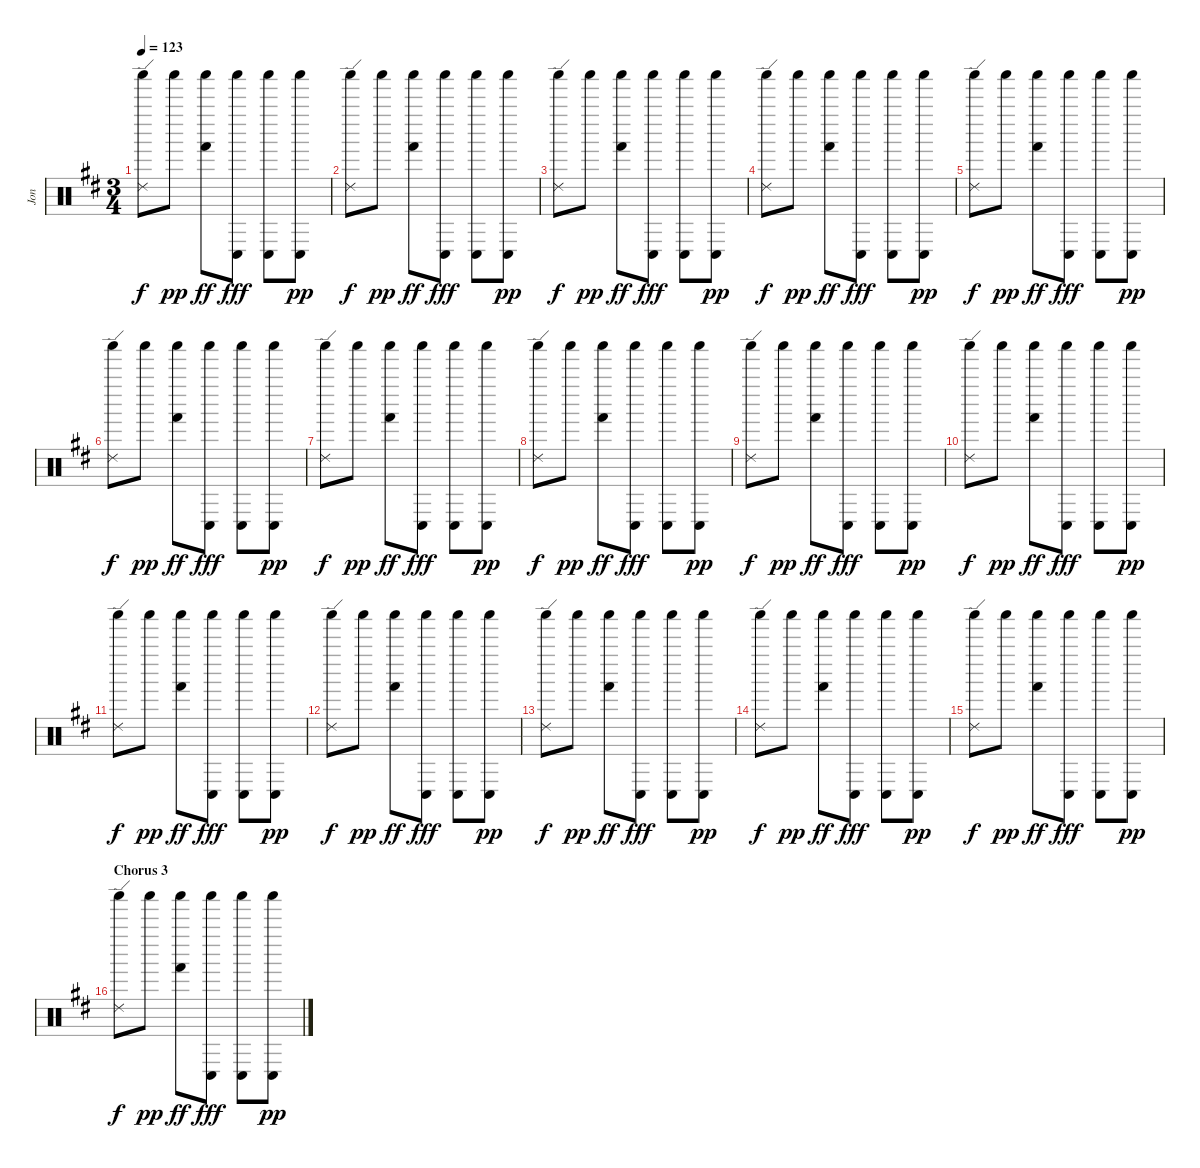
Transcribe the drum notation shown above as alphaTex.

\track ("Jon" "Jon") {instrument percussion}
\staff {score}
\articulation defaults
\ts (3 4)
\tempo 123
\clef neutral
\ks d
("Shaker (hit)" "Ride (edge) 2").8{dy f} "Shaker (hit)".8{dy pp} ("Shaker (hit)" "Hand (hit)").8{dy ff} ("Shaker (hit)" "Conga low (hit)").8{dy fff} ("Shaker (hit)" "Conga low (hit)").8 ("Shaker (hit)" "Conga low (hit)").8{dy pp} |
("Shaker (hit)" "Ride (edge) 2").8{dy f} "Shaker (hit)".8{dy pp} ("Shaker (hit)" "Hand (hit)").8{dy ff} ("Shaker (hit)" "Conga low (hit)").8{dy fff} ("Shaker (hit)" "Conga low (hit)").8 ("Shaker (hit)" "Conga low (hit)").8{dy pp} |
("Shaker (hit)" "Ride (edge) 2").8{dy f} "Shaker (hit)".8{dy pp} ("Shaker (hit)" "Hand (hit)").8{dy ff} ("Shaker (hit)" "Conga low (hit)").8{dy fff} ("Shaker (hit)" "Conga low (hit)").8 ("Shaker (hit)" "Conga low (hit)").8{dy pp} |
("Shaker (hit)" "Ride (edge) 2").8{dy f} "Shaker (hit)".8{dy pp} ("Shaker (hit)" "Hand (hit)").8{dy ff} ("Shaker (hit)" "Conga low (hit)").8{dy fff} ("Shaker (hit)" "Conga low (hit)").8 ("Shaker (hit)" "Conga low (hit)").8{dy pp} |
("Shaker (hit)" "Ride (edge) 2").8{dy f} "Shaker (hit)".8{dy pp} ("Shaker (hit)" "Hand (hit)").8{dy ff} ("Shaker (hit)" "Conga low (hit)").8{dy fff} ("Shaker (hit)" "Conga low (hit)").8 ("Shaker (hit)" "Conga low (hit)").8{dy pp} |
("Shaker (hit)" "Ride (edge) 2").8{dy f} "Shaker (hit)".8{dy pp} ("Shaker (hit)" "Hand (hit)").8{dy ff} ("Shaker (hit)" "Conga low (hit)").8{dy fff} ("Shaker (hit)" "Conga low (hit)").8 ("Shaker (hit)" "Conga low (hit)").8{dy pp} |
("Shaker (hit)" "Ride (edge) 2").8{dy f} "Shaker (hit)".8{dy pp} ("Shaker (hit)" "Hand (hit)").8{dy ff} ("Shaker (hit)" "Conga low (hit)").8{dy fff} ("Shaker (hit)" "Conga low (hit)").8 ("Shaker (hit)" "Conga low (hit)").8{dy pp} |
\section ("" "")
("Shaker (hit)" "Ride (edge) 2").8{dy f} "Shaker (hit)".8{dy pp} ("Shaker (hit)" "Hand (hit)").8{dy ff} ("Shaker (hit)" "Conga low (hit)").8{dy fff} ("Shaker (hit)" "Conga low (hit)").8 ("Shaker (hit)" "Conga low (hit)").8{dy pp} |
("Shaker (hit)" "Ride (edge) 2").8{dy f} "Shaker (hit)".8{dy pp} ("Shaker (hit)" "Hand (hit)").8{dy ff} ("Shaker (hit)" "Conga low (hit)").8{dy fff} ("Shaker (hit)" "Conga low (hit)").8 ("Shaker (hit)" "Conga low (hit)").8{dy pp} |
("Shaker (hit)" "Ride (edge) 2").8{dy f} "Shaker (hit)".8{dy pp} ("Shaker (hit)" "Hand (hit)").8{dy ff} ("Shaker (hit)" "Conga low (hit)").8{dy fff} ("Shaker (hit)" "Conga low (hit)").8 ("Shaker (hit)" "Conga low (hit)").8{dy pp} |
("Shaker (hit)" "Ride (edge) 2").8{dy f} "Shaker (hit)".8{dy pp} ("Shaker (hit)" "Hand (hit)").8{dy ff} ("Shaker (hit)" "Conga low (hit)").8{dy fff} ("Shaker (hit)" "Conga low (hit)").8 ("Shaker (hit)" "Conga low (hit)").8{dy pp} |
("Shaker (hit)" "Ride (edge) 2").8{dy f} "Shaker (hit)".8{dy pp} ("Shaker (hit)" "Hand (hit)").8{dy ff} ("Shaker (hit)" "Conga low (hit)").8{dy fff} ("Shaker (hit)" "Conga low (hit)").8 ("Shaker (hit)" "Conga low (hit)").8{dy pp} |
("Shaker (hit)" "Ride (edge) 2").8{dy f} "Shaker (hit)".8{dy pp} ("Shaker (hit)" "Hand (hit)").8{dy ff} ("Shaker (hit)" "Conga low (hit)").8{dy fff} ("Shaker (hit)" "Conga low (hit)").8 ("Shaker (hit)" "Conga low (hit)").8{dy pp} |
("Shaker (hit)" "Ride (edge) 2").8{dy f} "Shaker (hit)".8{dy pp} ("Shaker (hit)" "Hand (hit)").8{dy ff} ("Shaker (hit)" "Conga low (hit)").8{dy fff} ("Shaker (hit)" "Conga low (hit)").8 ("Shaker (hit)" "Conga low (hit)").8{dy pp} |
("Shaker (hit)" "Ride (edge) 2").8{dy f} "Shaker (hit)".8{dy pp} ("Shaker (hit)" "Hand (hit)").8{dy ff} ("Shaker (hit)" "Conga low (hit)").8{dy fff} ("Shaker (hit)" "Conga low (hit)").8 ("Shaker (hit)" "Conga low (hit)").8{dy pp} |
\section ("" "Chorus 3")
("Shaker (hit)" "Ride (edge) 2").8{dy f} "Shaker (hit)".8{dy pp} ("Shaker (hit)" "Hand (hit)").8{dy ff} ("Shaker (hit)" "Conga low (hit)").8{dy fff} ("Shaker (hit)" "Conga low (hit)").8 ("Shaker (hit)" "Conga low (hit)").8{dy pp}
